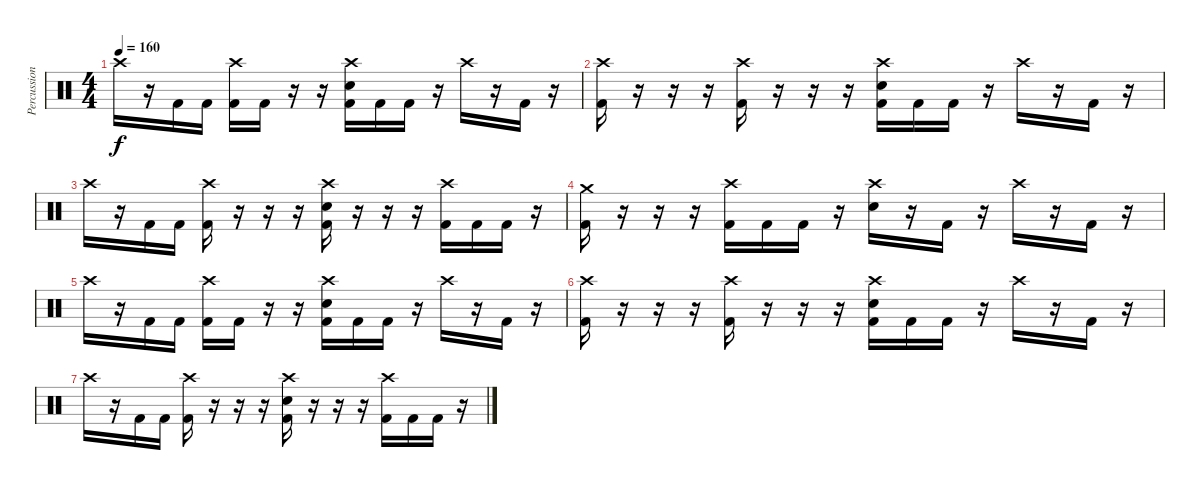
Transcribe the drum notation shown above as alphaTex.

\track ("Percussion" "Percussion") {instrument percussion}
\staff {score}
\articulation defaults
\ts (4 4)
\tempo 160
\clef neutral
\ks c "Crash high (hit)".16{dy f}
r.16 "Kick (hit) 2".16 "Kick (hit) 2".16 ("Crash high (hit)" "Kick (hit) 2").16 "Kick (hit) 2".16 r.16 r.16 ("Crash high (hit)" "Electric Snare (hit)" "Kick (hit) 2").16 "Kick (hit) 2".16 "Kick (hit) 2".16 r.16 "Crash high (hit)".16 r.16 "Kick (hit) 2".16 r.16 |
("Crash high (hit)" "Kick (hit) 2").16 r.16 r.16 r.16 ("Crash high (hit)" "Kick (hit) 2").16 r.16 r.16 r.16 ("Crash high (hit)" "Electric Snare (hit)" "Kick (hit) 2").16 "Kick (hit) 2".16 "Kick (hit) 2".16 r.16 "Crash high (hit)".16 r.16 "Kick (hit) 2".16 r.16 |
"Crash high (hit)".16 r.16 "Kick (hit) 2".16 "Kick (hit) 2".16 ("Crash high (hit)" "Kick (hit) 2").16 r.16 r.16 r.16 ("Crash high (hit)" "Electric Snare (hit)" "Kick (hit) 2").16 r.16 r.16 r.16 ("Crash high (hit)" "Kick (hit) 2").16 "Kick (hit) 2".16 "Kick (hit) 2".16 r.16 |
("Crash medium (hit)" "Kick (hit) 2").16 r.16 r.16 r.16 ("Crash high (hit)" "Kick (hit) 2").16 "Kick (hit) 2".16 "Kick (hit) 2".16 r.16 ("Crash high (hit)" "Electric Snare (hit)").16 r.16 "Kick (hit) 2".16 r.16 "Crash high (hit)".16 r.16 "Kick (hit) 2".16 r.16 |
"Crash high (hit)".16 r.16 "Kick (hit) 2".16 "Kick (hit) 2".16 ("Crash high (hit)" "Kick (hit) 2").16 "Kick (hit) 2".16 r.16 r.16 ("Crash high (hit)" "Electric Snare (hit)" "Kick (hit) 2").16 "Kick (hit) 2".16 "Kick (hit) 2".16 r.16 "Crash high (hit)".16 r.16 "Kick (hit) 2".16 r.16 |
("Crash high (hit)" "Kick (hit) 2").16 r.16 r.16 r.16 ("Crash high (hit)" "Kick (hit) 2").16 r.16 r.16 r.16 ("Crash high (hit)" "Electric Snare (hit)" "Kick (hit) 2").16 "Kick (hit) 2".16 "Kick (hit) 2".16 r.16 "Crash high (hit)".16 r.16 "Kick (hit) 2".16 r.16 |
"Crash high (hit)".16 r.16 "Kick (hit) 2".16 "Kick (hit) 2".16 ("Crash high (hit)" "Kick (hit) 2").16 r.16 r.16 r.16 ("Crash high (hit)" "Electric Snare (hit)" "Kick (hit) 2").16 r.16 r.16 r.16 ("Crash high (hit)" "Kick (hit) 2").16 "Kick (hit) 2".16 "Kick (hit) 2".16 r.16
